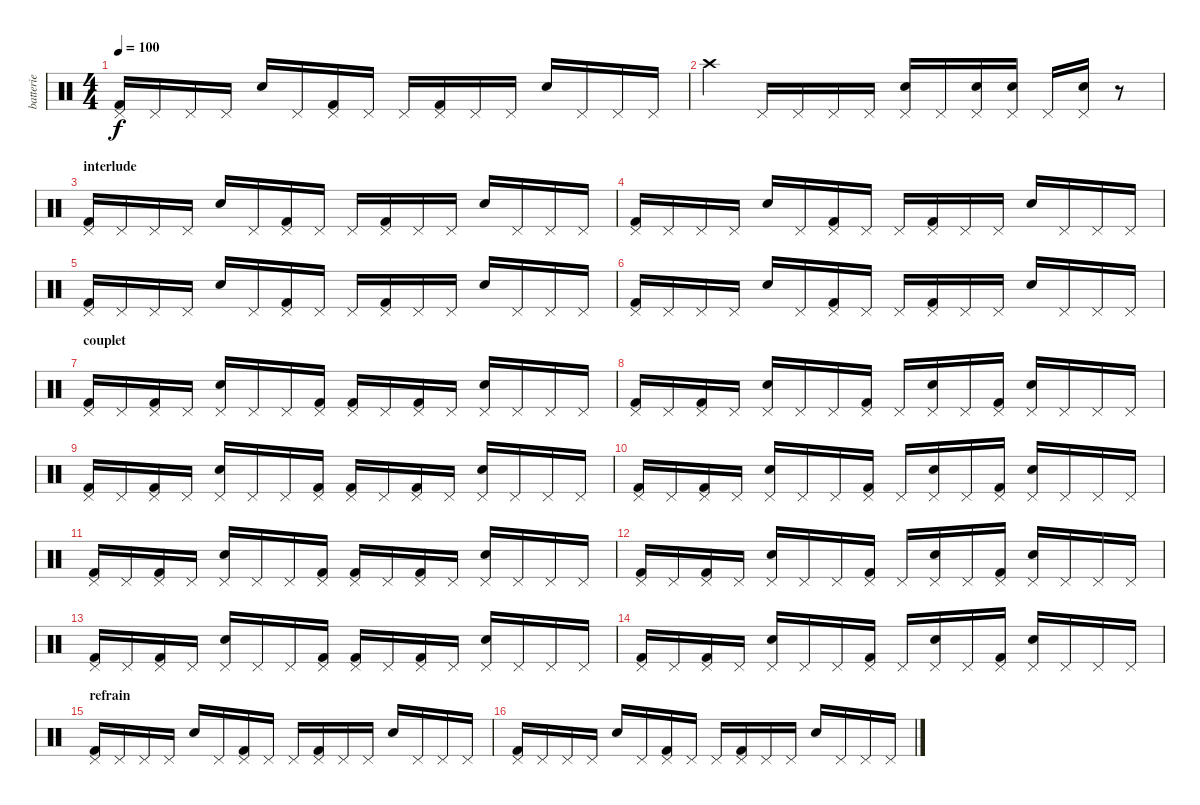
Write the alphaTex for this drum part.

\track ("batterie" "batterie") {instrument percussion}
\staff {score}
\articulation defaults
\ts (4 4)
\tempo 100
\clef neutral
\ks c
("Pedal Hi-Hat (hit)" "Kick (hit) 2").16{dy f} "Pedal Hi-Hat (hit)".16 "Pedal Hi-Hat (hit)".16 "Pedal Hi-Hat (hit)".16 "Snare (hit) 2".16 "Pedal Hi-Hat (hit)".16 ("Pedal Hi-Hat (hit)" "Kick (hit) 2").16 "Pedal Hi-Hat (hit)".16 "Pedal Hi-Hat (hit)".16 ("Pedal Hi-Hat (hit)" "Kick (hit) 2").16 "Pedal Hi-Hat (hit)".16 "Pedal Hi-Hat (hit)".16 "Snare (hit) 2".16 "Pedal Hi-Hat (hit)".16 "Pedal Hi-Hat (hit)".16 "Pedal Hi-Hat (hit)".16 |
"Crash high (hit)".4 "Pedal Hi-Hat (hit)".16 "Pedal Hi-Hat (hit)".16 "Pedal Hi-Hat (hit)".16 "Pedal Hi-Hat (hit)".16 ("Pedal Hi-Hat (hit)" "Snare (hit) 2").16 "Pedal Hi-Hat (hit)".16 ("Pedal Hi-Hat (hit)" "Snare (hit) 2").16 ("Pedal Hi-Hat (hit)" "Snare (hit) 2").16 "Pedal Hi-Hat (hit)".16 ("Pedal Hi-Hat (hit)" "Snare (hit) 2").16 r.8 |
\section ("" "interlude")
("Pedal Hi-Hat (hit)" "Kick (hit) 2").16 "Pedal Hi-Hat (hit)".16 "Pedal Hi-Hat (hit)".16 "Pedal Hi-Hat (hit)".16 "Snare (hit) 2".16 "Pedal Hi-Hat (hit)".16 ("Pedal Hi-Hat (hit)" "Kick (hit) 2").16 "Pedal Hi-Hat (hit)".16 "Pedal Hi-Hat (hit)".16 ("Pedal Hi-Hat (hit)" "Kick (hit) 2").16 "Pedal Hi-Hat (hit)".16 "Pedal Hi-Hat (hit)".16 "Snare (hit) 2".16 "Pedal Hi-Hat (hit)".16 "Pedal Hi-Hat (hit)".16 "Pedal Hi-Hat (hit)".16 |
("Pedal Hi-Hat (hit)" "Kick (hit) 2").16 "Pedal Hi-Hat (hit)".16 "Pedal Hi-Hat (hit)".16 "Pedal Hi-Hat (hit)".16 "Snare (hit) 2".16 "Pedal Hi-Hat (hit)".16 ("Pedal Hi-Hat (hit)" "Kick (hit) 2").16 "Pedal Hi-Hat (hit)".16 "Pedal Hi-Hat (hit)".16 ("Pedal Hi-Hat (hit)" "Kick (hit) 2").16 "Pedal Hi-Hat (hit)".16 "Pedal Hi-Hat (hit)".16 "Snare (hit) 2".16 "Pedal Hi-Hat (hit)".16 "Pedal Hi-Hat (hit)".16 "Pedal Hi-Hat (hit)".16 |
("Pedal Hi-Hat (hit)" "Kick (hit) 2").16 "Pedal Hi-Hat (hit)".16 "Pedal Hi-Hat (hit)".16 "Pedal Hi-Hat (hit)".16 "Snare (hit) 2".16 "Pedal Hi-Hat (hit)".16 ("Pedal Hi-Hat (hit)" "Kick (hit) 2").16 "Pedal Hi-Hat (hit)".16 "Pedal Hi-Hat (hit)".16 ("Pedal Hi-Hat (hit)" "Kick (hit) 2").16 "Pedal Hi-Hat (hit)".16 "Pedal Hi-Hat (hit)".16 "Snare (hit) 2".16 "Pedal Hi-Hat (hit)".16 "Pedal Hi-Hat (hit)".16 "Pedal Hi-Hat (hit)".16 |
("Pedal Hi-Hat (hit)" "Kick (hit) 2").16 "Pedal Hi-Hat (hit)".16 "Pedal Hi-Hat (hit)".16 "Pedal Hi-Hat (hit)".16 "Snare (hit) 2".16 "Pedal Hi-Hat (hit)".16 ("Pedal Hi-Hat (hit)" "Kick (hit) 2").16 "Pedal Hi-Hat (hit)".16 "Pedal Hi-Hat (hit)".16 ("Pedal Hi-Hat (hit)" "Kick (hit) 2").16 "Pedal Hi-Hat (hit)".16 "Pedal Hi-Hat (hit)".16 "Snare (hit) 2".16 "Pedal Hi-Hat (hit)".16 "Pedal Hi-Hat (hit)".16 "Pedal Hi-Hat (hit)".16 |
\section ("" "couplet")
("Pedal Hi-Hat (hit)" "Kick (hit) 2").16 "Pedal Hi-Hat (hit)".16 ("Pedal Hi-Hat (hit)" "Kick (hit) 2").16 "Pedal Hi-Hat (hit)".16 ("Pedal Hi-Hat (hit)" "Snare (hit) 2").16 "Pedal Hi-Hat (hit)".16 "Pedal Hi-Hat (hit)".16 ("Pedal Hi-Hat (hit)" "Kick (hit) 2").16 ("Pedal Hi-Hat (hit)" "Kick (hit) 2").16 "Pedal Hi-Hat (hit)".16 ("Pedal Hi-Hat (hit)" "Kick (hit) 2").16 "Pedal Hi-Hat (hit)".16 ("Pedal Hi-Hat (hit)" "Snare (hit) 2").16 "Pedal Hi-Hat (hit)".16 "Pedal Hi-Hat (hit)".16 "Pedal Hi-Hat (hit)".16 |
("Pedal Hi-Hat (hit)" "Kick (hit) 2").16 "Pedal Hi-Hat (hit)".16 ("Pedal Hi-Hat (hit)" "Kick (hit) 2").16 "Pedal Hi-Hat (hit)".16 ("Pedal Hi-Hat (hit)" "Snare (hit) 2").16 "Pedal Hi-Hat (hit)".16 "Pedal Hi-Hat (hit)".16 ("Pedal Hi-Hat (hit)" "Kick (hit) 2").16 "Pedal Hi-Hat (hit)".16 ("Pedal Hi-Hat (hit)" "Snare (hit) 2").16 "Pedal Hi-Hat (hit)".16 ("Pedal Hi-Hat (hit)" "Kick (hit) 2").16 ("Pedal Hi-Hat (hit)" "Snare (hit) 2").16 "Pedal Hi-Hat (hit)".16 "Pedal Hi-Hat (hit)".16 "Pedal Hi-Hat (hit)".16 |
("Pedal Hi-Hat (hit)" "Kick (hit) 2").16 "Pedal Hi-Hat (hit)".16 ("Pedal Hi-Hat (hit)" "Kick (hit) 2").16 "Pedal Hi-Hat (hit)".16 ("Pedal Hi-Hat (hit)" "Snare (hit) 2").16 "Pedal Hi-Hat (hit)".16 "Pedal Hi-Hat (hit)".16 ("Pedal Hi-Hat (hit)" "Kick (hit) 2").16 ("Pedal Hi-Hat (hit)" "Kick (hit) 2").16 "Pedal Hi-Hat (hit)".16 ("Pedal Hi-Hat (hit)" "Kick (hit) 2").16 "Pedal Hi-Hat (hit)".16 ("Pedal Hi-Hat (hit)" "Snare (hit) 2").16 "Pedal Hi-Hat (hit)".16 "Pedal Hi-Hat (hit)".16 "Pedal Hi-Hat (hit)".16 |
("Pedal Hi-Hat (hit)" "Kick (hit) 2").16 "Pedal Hi-Hat (hit)".16 ("Pedal Hi-Hat (hit)" "Kick (hit) 2").16 "Pedal Hi-Hat (hit)".16 ("Pedal Hi-Hat (hit)" "Snare (hit) 2").16 "Pedal Hi-Hat (hit)".16 "Pedal Hi-Hat (hit)".16 ("Pedal Hi-Hat (hit)" "Kick (hit) 2").16 "Pedal Hi-Hat (hit)".16 ("Pedal Hi-Hat (hit)" "Snare (hit) 2").16 "Pedal Hi-Hat (hit)".16 ("Pedal Hi-Hat (hit)" "Kick (hit) 2").16 ("Pedal Hi-Hat (hit)" "Snare (hit) 2").16 "Pedal Hi-Hat (hit)".16 "Pedal Hi-Hat (hit)".16 "Pedal Hi-Hat (hit)".16 |
("Pedal Hi-Hat (hit)" "Kick (hit) 2").16 "Pedal Hi-Hat (hit)".16 ("Pedal Hi-Hat (hit)" "Kick (hit) 2").16 "Pedal Hi-Hat (hit)".16 ("Pedal Hi-Hat (hit)" "Snare (hit) 2").16 "Pedal Hi-Hat (hit)".16 "Pedal Hi-Hat (hit)".16 ("Pedal Hi-Hat (hit)" "Kick (hit) 2").16 ("Pedal Hi-Hat (hit)" "Kick (hit) 2").16 "Pedal Hi-Hat (hit)".16 ("Pedal Hi-Hat (hit)" "Kick (hit) 2").16 "Pedal Hi-Hat (hit)".16 ("Pedal Hi-Hat (hit)" "Snare (hit) 2").16 "Pedal Hi-Hat (hit)".16 "Pedal Hi-Hat (hit)".16 "Pedal Hi-Hat (hit)".16 |
("Pedal Hi-Hat (hit)" "Kick (hit) 2").16 "Pedal Hi-Hat (hit)".16 ("Pedal Hi-Hat (hit)" "Kick (hit) 2").16 "Pedal Hi-Hat (hit)".16 ("Pedal Hi-Hat (hit)" "Snare (hit) 2").16 "Pedal Hi-Hat (hit)".16 "Pedal Hi-Hat (hit)".16 ("Pedal Hi-Hat (hit)" "Kick (hit) 2").16 "Pedal Hi-Hat (hit)".16 ("Pedal Hi-Hat (hit)" "Snare (hit) 2").16 "Pedal Hi-Hat (hit)".16 ("Pedal Hi-Hat (hit)" "Kick (hit) 2").16 ("Pedal Hi-Hat (hit)" "Snare (hit) 2").16 "Pedal Hi-Hat (hit)".16 "Pedal Hi-Hat (hit)".16 "Pedal Hi-Hat (hit)".16 |
("Pedal Hi-Hat (hit)" "Kick (hit) 2").16 "Pedal Hi-Hat (hit)".16 ("Pedal Hi-Hat (hit)" "Kick (hit) 2").16 "Pedal Hi-Hat (hit)".16 ("Pedal Hi-Hat (hit)" "Snare (hit) 2").16 "Pedal Hi-Hat (hit)".16 "Pedal Hi-Hat (hit)".16 ("Pedal Hi-Hat (hit)" "Kick (hit) 2").16 ("Pedal Hi-Hat (hit)" "Kick (hit) 2").16 "Pedal Hi-Hat (hit)".16 ("Pedal Hi-Hat (hit)" "Kick (hit) 2").16 "Pedal Hi-Hat (hit)".16 ("Pedal Hi-Hat (hit)" "Snare (hit) 2").16 "Pedal Hi-Hat (hit)".16 "Pedal Hi-Hat (hit)".16 "Pedal Hi-Hat (hit)".16 |
("Pedal Hi-Hat (hit)" "Kick (hit) 2").16 "Pedal Hi-Hat (hit)".16 ("Pedal Hi-Hat (hit)" "Kick (hit) 2").16 "Pedal Hi-Hat (hit)".16 ("Pedal Hi-Hat (hit)" "Snare (hit) 2").16 "Pedal Hi-Hat (hit)".16 "Pedal Hi-Hat (hit)".16 ("Pedal Hi-Hat (hit)" "Kick (hit) 2").16 "Pedal Hi-Hat (hit)".16 ("Pedal Hi-Hat (hit)" "Snare (hit) 2").16 "Pedal Hi-Hat (hit)".16 ("Pedal Hi-Hat (hit)" "Kick (hit) 2").16 ("Pedal Hi-Hat (hit)" "Snare (hit) 2").16 "Pedal Hi-Hat (hit)".16 "Pedal Hi-Hat (hit)".16 "Pedal Hi-Hat (hit)".16 |
\section ("" "refrain")
("Pedal Hi-Hat (hit)" "Kick (hit) 2").16 "Pedal Hi-Hat (hit)".16 "Pedal Hi-Hat (hit)".16 "Pedal Hi-Hat (hit)".16 "Snare (hit) 2".16 "Pedal Hi-Hat (hit)".16 ("Pedal Hi-Hat (hit)" "Kick (hit) 2").16 "Pedal Hi-Hat (hit)".16 "Pedal Hi-Hat (hit)".16 ("Pedal Hi-Hat (hit)" "Kick (hit) 2").16 "Pedal Hi-Hat (hit)".16 "Pedal Hi-Hat (hit)".16 "Snare (hit) 2".16 "Pedal Hi-Hat (hit)".16 "Pedal Hi-Hat (hit)".16 "Pedal Hi-Hat (hit)".16 |
("Pedal Hi-Hat (hit)" "Kick (hit) 2").16 "Pedal Hi-Hat (hit)".16 "Pedal Hi-Hat (hit)".16 "Pedal Hi-Hat (hit)".16 "Snare (hit) 2".16 "Pedal Hi-Hat (hit)".16 ("Pedal Hi-Hat (hit)" "Kick (hit) 2").16 "Pedal Hi-Hat (hit)".16 "Pedal Hi-Hat (hit)".16 ("Pedal Hi-Hat (hit)" "Kick (hit) 2").16 "Pedal Hi-Hat (hit)".16 "Pedal Hi-Hat (hit)".16 "Snare (hit) 2".16 "Pedal Hi-Hat (hit)".16 "Pedal Hi-Hat (hit)".16 "Pedal Hi-Hat (hit)".16
